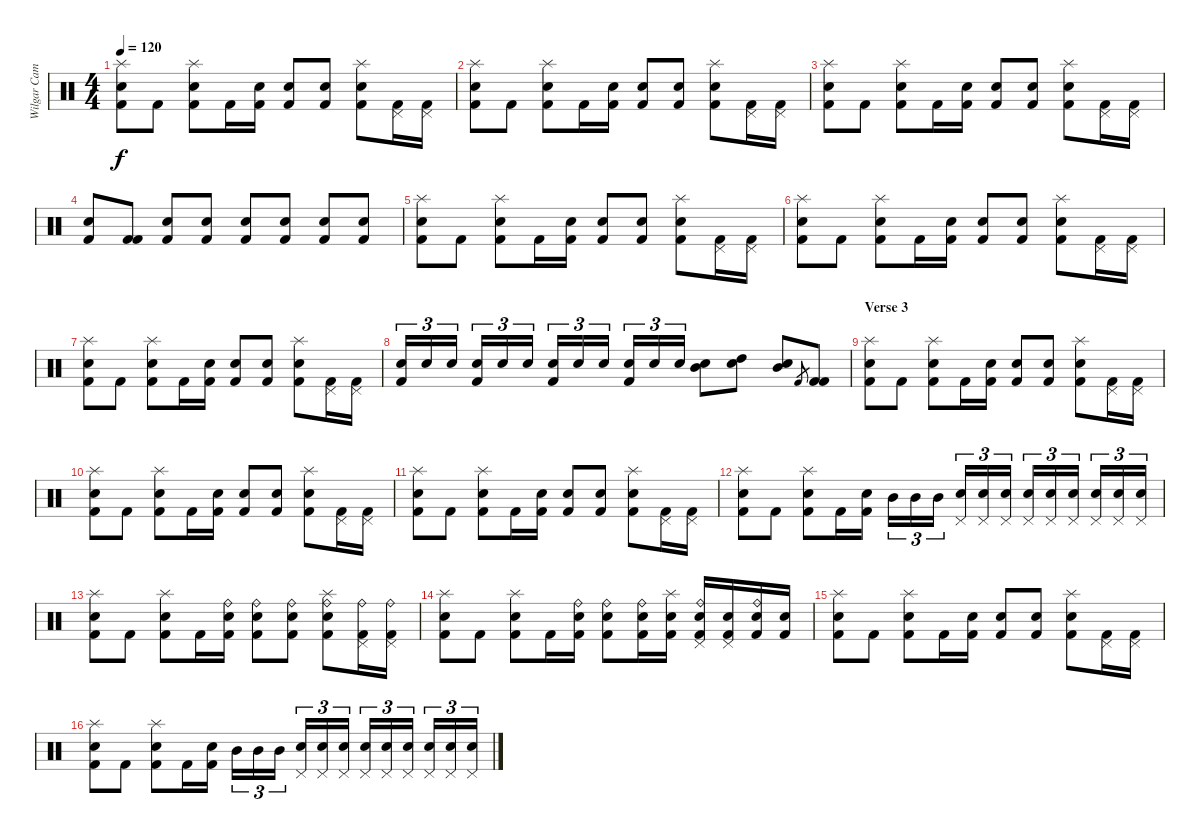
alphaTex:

\track ("Wilgar Campbell" "Wilgar Cam") {instrument percussion}
\staff {score}
\articulation defaults
\ts (4 4)
\tempo 120
\clef neutral
\ks c
("Splash (hit)" "Snare (hit) 2" "Kick (hit) 2").8{dy f} "Kick (hit) 2".8 ("Splash (hit)" "Electric Snare (hit)" "Kick (hit) 2").8 "Kick (hit) 2".16 ("Snare (hit) 2" "Kick (hit) 2").16 ("Snare (hit) 2" "Kick (hit) 2").8 ("Electric Snare (hit)" "Kick (hit) 2").8 ("Splash (hit)" "Electric Snare (hit)" "Kick (hit) 2").8 ("Pedal Hi-Hat (hit)" "Kick (hit) 2").16 ("Pedal Hi-Hat (hit)" "Kick (hit) 2").16 |
("Splash (hit)" "Snare (hit) 2" "Kick (hit) 2").8 "Kick (hit) 2".8 ("Splash (hit)" "Electric Snare (hit)" "Kick (hit) 2").8 "Kick (hit) 2".16 ("Snare (hit) 2" "Kick (hit) 2").16 ("Snare (hit) 2" "Kick (hit) 2").8 ("Electric Snare (hit)" "Kick (hit) 2").8 ("Splash (hit)" "Electric Snare (hit)" "Kick (hit) 2").8 ("Pedal Hi-Hat (hit)" "Kick (hit) 2").16 ("Pedal Hi-Hat (hit)" "Kick (hit) 2").16 |
("Splash (hit)" "Snare (hit) 2" "Kick (hit) 2").8 "Kick (hit) 2".8 ("Splash (hit)" "Electric Snare (hit)" "Kick (hit) 2").8 "Kick (hit) 2".16 ("Snare (hit) 2" "Kick (hit) 2").16 ("Snare (hit) 2" "Kick (hit) 2").8 ("Electric Snare (hit)" "Kick (hit) 2").8 ("Splash (hit)" "Electric Snare (hit)" "Kick (hit) 2").8 ("Pedal Hi-Hat (hit)" "Kick (hit) 2").16 ("Pedal Hi-Hat (hit)" "Kick (hit) 2").16 |
("Snare (hit) 2" "Kick (hit) 2").8 ("Kick (hit) 2" "Kick (hit) 2").8 ("Snare (hit) 2" "Kick (hit) 2").8 ("Snare (hit) 2" "Kick (hit) 2").8 ("Snare (hit) 2" "Kick (hit) 2").8 ("Kick (hit) 2" "Snare (hit) 2").8 ("Electric Snare (hit)" "Kick (hit) 2").8 ("Electric Snare (hit)" "Kick (hit) 2").8 |
("Splash (hit)" "Snare (hit) 2" "Kick (hit) 2").8 "Kick (hit) 2".8 ("Splash (hit)" "Electric Snare (hit)" "Kick (hit) 2").8 "Kick (hit) 2".16 ("Snare (hit) 2" "Kick (hit) 2").16 ("Snare (hit) 2" "Kick (hit) 2").8 ("Electric Snare (hit)" "Kick (hit) 2").8 ("Splash (hit)" "Electric Snare (hit)" "Kick (hit) 2").8 ("Pedal Hi-Hat (hit)" "Kick (hit) 2").16 ("Pedal Hi-Hat (hit)" "Kick (hit) 2").16 |
("Splash (hit)" "Snare (hit) 2" "Kick (hit) 2").8 "Kick (hit) 2".8 ("Splash (hit)" "Electric Snare (hit)" "Kick (hit) 2").8 "Kick (hit) 2".16 ("Snare (hit) 2" "Kick (hit) 2").16 ("Snare (hit) 2" "Kick (hit) 2").8 ("Electric Snare (hit)" "Kick (hit) 2").8 ("Splash (hit)" "Electric Snare (hit)" "Kick (hit) 2").8 ("Pedal Hi-Hat (hit)" "Kick (hit) 2").16 ("Pedal Hi-Hat (hit)" "Kick (hit) 2").16 |
("Splash (hit)" "Snare (hit) 2" "Kick (hit) 2").8 "Kick (hit) 2".8 ("Splash (hit)" "Electric Snare (hit)" "Kick (hit) 2").8 "Kick (hit) 2".16 ("Snare (hit) 2" "Kick (hit) 2").16 ("Snare (hit) 2" "Kick (hit) 2").8 ("Electric Snare (hit)" "Kick (hit) 2").8 ("Splash (hit)" "Electric Snare (hit)" "Kick (hit) 2").8 ("Pedal Hi-Hat (hit)" "Kick (hit) 2").16 ("Pedal Hi-Hat (hit)" "Kick (hit) 2").16 |
("Snare (hit) 2" "Kick (hit) 2").16{tu (3 2)} "Snare (hit) 2".16{tu (3 2)} "Snare (hit) 2".16{tu (3 2)} ("Snare (hit) 2" "Kick (hit) 2").16{tu (3 2)} "Snare (hit) 2".16{tu (3 2)} "Snare (hit) 2".16{tu (3 2)} ("Snare (hit) 2" "Kick (hit) 2").16{tu (3 2)} "Snare (hit) 2".16{tu (3 2)} "Snare (hit) 2".16{tu (3 2)} ("Snare (hit) 2" "Kick (hit) 2").16{tu (3 2)} "Snare (hit) 2".16{tu (3 2)} "Snare (hit) 2".16{tu (3 2)} ("Electric Snare (hit)" "Mid Tom (hit)").8 ("Snare (hit) 2" "High Tom (hit)").8 ("Electric Snare (hit)" "Mid Tom (hit)").8 "Kick (hit) 2".8{gr} ("Kick (hit) 2" "Kick (hit) 2").8 |
\section ("" "Verse 3")
("Splash (hit)" "Snare (hit) 2" "Kick (hit) 2").8 "Kick (hit) 2".8 ("Splash (hit)" "Electric Snare (hit)" "Kick (hit) 2").8 "Kick (hit) 2".16 ("Snare (hit) 2" "Kick (hit) 2").16 ("Snare (hit) 2" "Kick (hit) 2").8 ("Electric Snare (hit)" "Kick (hit) 2").8 ("Splash (hit)" "Electric Snare (hit)" "Kick (hit) 2").8 ("Pedal Hi-Hat (hit)" "Kick (hit) 2").16 ("Pedal Hi-Hat (hit)" "Kick (hit) 2").16 |
("Splash (hit)" "Snare (hit) 2" "Kick (hit) 2").8 "Kick (hit) 2".8 ("Splash (hit)" "Electric Snare (hit)" "Kick (hit) 2").8 "Kick (hit) 2".16 ("Snare (hit) 2" "Kick (hit) 2").16 ("Snare (hit) 2" "Kick (hit) 2").8 ("Electric Snare (hit)" "Kick (hit) 2").8 ("Splash (hit)" "Electric Snare (hit)" "Kick (hit) 2").8 ("Pedal Hi-Hat (hit)" "Kick (hit) 2").16 ("Pedal Hi-Hat (hit)" "Kick (hit) 2").16 |
("Splash (hit)" "Snare (hit) 2" "Kick (hit) 2").8 "Kick (hit) 2".8 ("Splash (hit)" "Electric Snare (hit)" "Kick (hit) 2").8 "Kick (hit) 2".16 ("Snare (hit) 2" "Kick (hit) 2").16 ("Snare (hit) 2" "Kick (hit) 2").8 ("Electric Snare (hit)" "Kick (hit) 2").8 ("Splash (hit)" "Electric Snare (hit)" "Kick (hit) 2").8 ("Pedal Hi-Hat (hit)" "Kick (hit) 2").16 ("Pedal Hi-Hat (hit)" "Kick (hit) 2").16 |
("Splash (hit)" "Snare (hit) 2" "Kick (hit) 2").8 "Kick (hit) 2".8 ("Splash (hit)" "Electric Snare (hit)" "Kick (hit) 2").8 "Kick (hit) 2".16 ("Snare (hit) 2" "Kick (hit) 2").16 "Mid Tom (hit)".16{tu (3 2)} "Mid Tom (hit)".16{tu (3 2)} "Mid Tom (hit)".16{tu (3 2)} ("Pedal Hi-Hat (hit)" "Snare (hit) 2").16{tu (3 2)} ("Pedal Hi-Hat (hit)" "Snare (hit) 2").16{tu (3 2)} ("Pedal Hi-Hat (hit)" "Snare (hit) 2").16{tu (3 2)} ("Pedal Hi-Hat (hit)" "Snare (hit) 2").16{tu (3 2)} ("Pedal Hi-Hat (hit)" "Snare (hit) 2").16{tu (3 2)} ("Pedal Hi-Hat (hit)" "Snare (hit) 2").16{tu (3 2)} ("Pedal Hi-Hat (hit)" "Snare (hit) 2").16{tu (3 2)} ("Pedal Hi-Hat (hit)" "Snare (hit) 2").16{tu (3 2)} ("Pedal Hi-Hat (hit)" "Snare (hit) 2").16{tu (3 2)} |
("Splash (hit)" "Snare (hit) 2" "Kick (hit) 2").8 "Kick (hit) 2".8 ("Splash (hit)" "Electric Snare (hit)" "Kick (hit) 2").8 "Kick (hit) 2".16 ("Ride (bell)" "Snare (hit) 2" "Kick (hit) 2").16 ("Ride (bell)" "Snare (hit) 2" "Kick (hit) 2").8 ("Ride (bell)" "Electric Snare (hit)" "Kick (hit) 2").8 ("Ride (bell)" "Splash (hit)" "Electric Snare (hit)" "Kick (hit) 2").8 ("Ride (bell)" "Pedal Hi-Hat (hit)" "Kick (hit) 2").16 ("Ride (bell)" "Pedal Hi-Hat (hit)" "Kick (hit) 2").16 |
("Splash (hit)" "Snare (hit) 2" "Kick (hit) 2").8 "Kick (hit) 2".8 ("Splash (hit)" "Electric Snare (hit)" "Kick (hit) 2").8 "Kick (hit) 2".16 ("Ride (bell)" "Snare (hit) 2" "Kick (hit) 2").16 ("Ride (bell)" "Snare (hit) 2" "Kick (hit) 2").8 ("Ride (bell)" "Electric Snare (hit)" "Kick (hit) 2").16 ("Splash (hit)" "Electric Snare (hit)" "Kick (hit) 2").16 ("Ride (bell)" "Pedal Hi-Hat (hit)" "Electric Snare (hit)" "Kick (hit) 2").16 ("Pedal Hi-Hat (hit)" "Electric Snare (hit)" "Kick (hit) 2").16 ("Ride (bell)" "Electric Snare (hit)" "Kick (hit) 2").16 ("Electric Snare (hit)" "Kick (hit) 2").16 |
("Splash (hit)" "Snare (hit) 2" "Kick (hit) 2").8 "Kick (hit) 2".8 ("Splash (hit)" "Electric Snare (hit)" "Kick (hit) 2").8 "Kick (hit) 2".16 ("Snare (hit) 2" "Kick (hit) 2").16 ("Snare (hit) 2" "Kick (hit) 2").8 ("Electric Snare (hit)" "Kick (hit) 2").8 ("Splash (hit)" "Electric Snare (hit)" "Kick (hit) 2").8 ("Pedal Hi-Hat (hit)" "Kick (hit) 2").16 ("Pedal Hi-Hat (hit)" "Kick (hit) 2").16 |
("Splash (hit)" "Snare (hit) 2" "Kick (hit) 2").8 "Kick (hit) 2".8 ("Splash (hit)" "Electric Snare (hit)" "Kick (hit) 2").8 "Kick (hit) 2".16 ("Snare (hit) 2" "Kick (hit) 2").16 "Mid Tom (hit)".16{tu (3 2)} "Mid Tom (hit)".16{tu (3 2)} "Mid Tom (hit)".16{tu (3 2)} ("Pedal Hi-Hat (hit)" "Snare (hit) 2").16{tu (3 2)} ("Pedal Hi-Hat (hit)" "Snare (hit) 2").16{tu (3 2)} ("Pedal Hi-Hat (hit)" "Snare (hit) 2").16{tu (3 2)} ("Pedal Hi-Hat (hit)" "Snare (hit) 2").16{tu (3 2)} ("Pedal Hi-Hat (hit)" "Snare (hit) 2").16{tu (3 2)} ("Pedal Hi-Hat (hit)" "Snare (hit) 2").16{tu (3 2)} ("Pedal Hi-Hat (hit)" "Snare (hit) 2").16{tu (3 2)} ("Pedal Hi-Hat (hit)" "Snare (hit) 2").16{tu (3 2)} ("Pedal Hi-Hat (hit)" "Snare (hit) 2").16{tu (3 2)}
